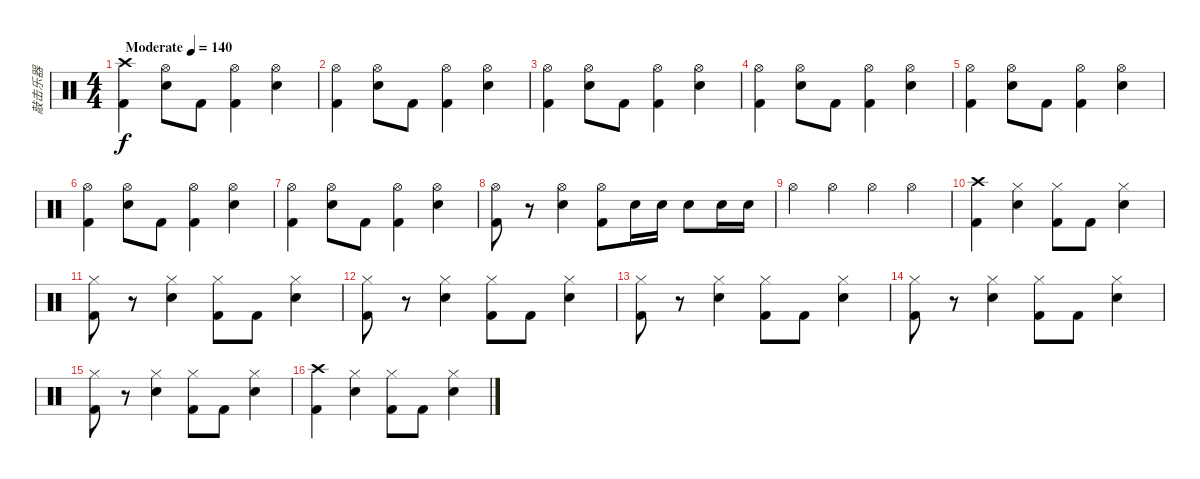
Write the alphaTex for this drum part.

\track ("敲击乐器" "敲击乐器") {instrument percussion}
\staff {score}
\articulation defaults
\ts (4 4)
\tempo (140 "Moderate")
\clef neutral
\ks c
("Crash high (hit)" "Kick (hit) 2").4{dy f} ("Hi-Hat (open)" "Electric Snare (hit)").8 "Kick (hit) 2".8 ("Hi-Hat (open)" "Kick (hit) 2").4 ("Hi-Hat (open)" "Electric Snare (hit)").4 |
("Hi-Hat (open)" "Kick (hit) 2").4 ("Hi-Hat (open)" "Electric Snare (hit)").8 "Kick (hit) 2".8 ("Hi-Hat (open)" "Kick (hit) 2").4 ("Hi-Hat (open)" "Electric Snare (hit)").4 |
("Hi-Hat (open)" "Kick (hit) 2").4 ("Hi-Hat (open)" "Electric Snare (hit)").8 "Kick (hit) 2".8 ("Hi-Hat (open)" "Kick (hit) 2").4 ("Hi-Hat (open)" "Electric Snare (hit)").4 |
("Hi-Hat (open)" "Kick (hit) 2").4 ("Hi-Hat (open)" "Electric Snare (hit)").8 "Kick (hit) 2".8 ("Hi-Hat (open)" "Kick (hit) 2").4 ("Hi-Hat (open)" "Electric Snare (hit)").4 |
("Hi-Hat (open)" "Kick (hit) 2").4 ("Hi-Hat (open)" "Electric Snare (hit)").8 "Kick (hit) 2".8 ("Hi-Hat (open)" "Kick (hit) 2").4 ("Hi-Hat (open)" "Electric Snare (hit)").4 |
("Hi-Hat (open)" "Kick (hit) 2").4 ("Hi-Hat (open)" "Electric Snare (hit)").8 "Kick (hit) 2".8 ("Hi-Hat (open)" "Kick (hit) 2").4 ("Hi-Hat (open)" "Electric Snare (hit)").4 |
("Hi-Hat (open)" "Kick (hit) 2").4 ("Hi-Hat (open)" "Electric Snare (hit)").8 "Kick (hit) 2".8 ("Hi-Hat (open)" "Kick (hit) 2").4 ("Hi-Hat (open)" "Electric Snare (hit)").4 |
("Hi-Hat (open)" "Kick (hit) 2").8 r.8 ("Hi-Hat (open)" "Electric Snare (hit)").4 ("Hi-Hat (open)" "Kick (hit) 2").8 "Electric Snare (hit)".16 "Electric Snare (hit)".16 "Electric Snare (hit)".8 "Electric Snare (hit)".16 "Electric Snare (hit)".16 |
"Hi-Hat (open)".4 "Hi-Hat (open)".4 "Hi-Hat (open)".4 "Hi-Hat (open)".4 |
("Crash high (hit)" "Kick (hit) 2").4 ("Hi-Hat (closed)" "Electric Snare (hit)").4 ("Hi-Hat (closed)" "Kick (hit) 2").8 "Kick (hit) 2".8 ("Hi-Hat (closed)" "Electric Snare (hit)").4 |
("Hi-Hat (closed)" "Kick (hit) 2").8 r.8 ("Hi-Hat (closed)" "Electric Snare (hit)").4 ("Hi-Hat (closed)" "Kick (hit) 2").8 "Kick (hit) 2".8 ("Hi-Hat (closed)" "Electric Snare (hit)").4 |
("Hi-Hat (closed)" "Kick (hit) 2").8 r.8 ("Hi-Hat (closed)" "Electric Snare (hit)").4 ("Hi-Hat (closed)" "Kick (hit) 2").8 "Kick (hit) 2".8 ("Hi-Hat (closed)" "Electric Snare (hit)").4 |
("Hi-Hat (closed)" "Kick (hit) 2").8 r.8 ("Hi-Hat (closed)" "Electric Snare (hit)").4 ("Hi-Hat (closed)" "Kick (hit) 2").8 "Kick (hit) 2".8 ("Hi-Hat (closed)" "Electric Snare (hit)").4 |
("Hi-Hat (closed)" "Kick (hit) 2").8 r.8 ("Hi-Hat (closed)" "Electric Snare (hit)").4 ("Hi-Hat (closed)" "Kick (hit) 2").8 "Kick (hit) 2".8 ("Hi-Hat (closed)" "Electric Snare (hit)").4 |
("Hi-Hat (closed)" "Kick (hit) 2").8 r.8 ("Hi-Hat (closed)" "Electric Snare (hit)").4 ("Hi-Hat (closed)" "Kick (hit) 2").8 "Kick (hit) 2".8 ("Hi-Hat (closed)" "Electric Snare (hit)").4 |
("Crash high (hit)" "Kick (hit) 2").4 ("Hi-Hat (closed)" "Electric Snare (hit)").4 ("Hi-Hat (closed)" "Kick (hit) 2").8 "Kick (hit) 2".8 ("Hi-Hat (closed)" "Electric Snare (hit)").4
